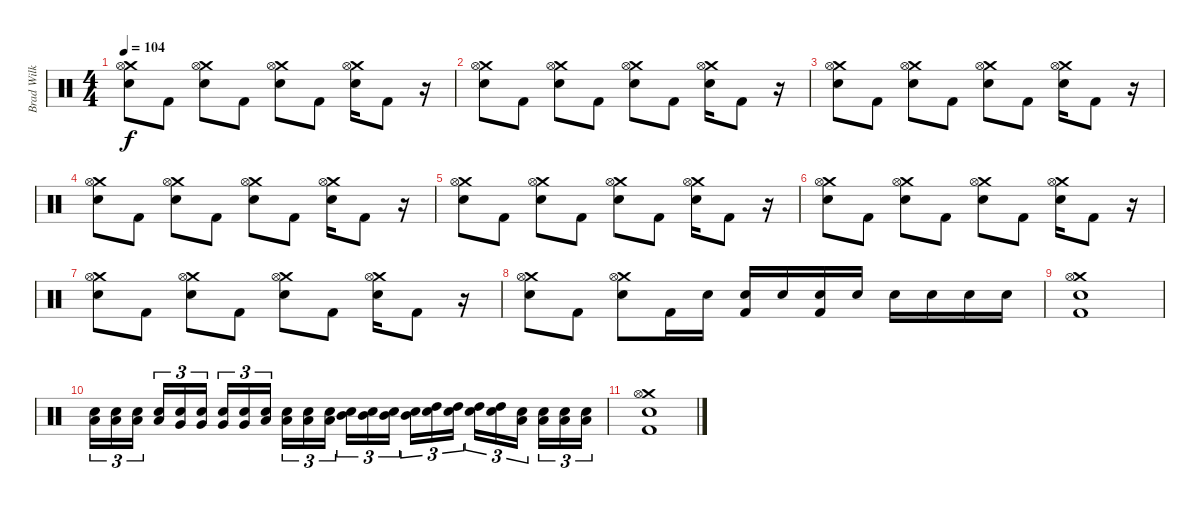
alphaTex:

\track ("Brad Wilk" "Brad Wilk") {instrument percussion}
\staff {score}
\articulation defaults
\ts (4 4)
\tempo 104
\clef neutral
\ks c
("Crash medium (hit)" "Hi-Hat (open)" "Electric Snare (hit)").8{dy f} "Kick (hit) 2".8 ("Crash medium (hit)" "Hi-Hat (open)" "Electric Snare (hit)").8 "Kick (hit) 2".8 ("Crash medium (hit)" "Hi-Hat (open)" "Electric Snare (hit)").8 "Kick (hit) 2".8 ("Crash medium (hit)" "Hi-Hat (open)" "Electric Snare (hit)").16 "Kick (hit) 2".8 r.16 |
("Crash medium (hit)" "Hi-Hat (open)" "Electric Snare (hit)").8 "Kick (hit) 2".8 ("Crash medium (hit)" "Hi-Hat (open)" "Electric Snare (hit)").8 "Kick (hit) 2".8 ("Crash medium (hit)" "Hi-Hat (open)" "Electric Snare (hit)").8 "Kick (hit) 2".8 ("Crash medium (hit)" "Hi-Hat (open)" "Electric Snare (hit)").16 "Kick (hit) 2".8 r.16 |
("Crash medium (hit)" "Hi-Hat (open)" "Electric Snare (hit)").8 "Kick (hit) 2".8 ("Crash medium (hit)" "Hi-Hat (open)" "Electric Snare (hit)").8 "Kick (hit) 2".8 ("Crash medium (hit)" "Hi-Hat (open)" "Electric Snare (hit)").8 "Kick (hit) 2".8 ("Crash medium (hit)" "Hi-Hat (open)" "Electric Snare (hit)").16 "Kick (hit) 2".8 r.16 |
("Crash medium (hit)" "Hi-Hat (open)" "Electric Snare (hit)").8 "Kick (hit) 2".8 ("Crash medium (hit)" "Hi-Hat (open)" "Electric Snare (hit)").8 "Kick (hit) 2".8 ("Crash medium (hit)" "Hi-Hat (open)" "Electric Snare (hit)").8 "Kick (hit) 2".8 ("Crash medium (hit)" "Hi-Hat (open)" "Electric Snare (hit)").16 "Kick (hit) 2".8 r.16 |
("Crash medium (hit)" "Hi-Hat (open)" "Electric Snare (hit)").8 "Kick (hit) 2".8 ("Crash medium (hit)" "Hi-Hat (open)" "Electric Snare (hit)").8 "Kick (hit) 2".8 ("Crash medium (hit)" "Hi-Hat (open)" "Electric Snare (hit)").8 "Kick (hit) 2".8 ("Crash medium (hit)" "Hi-Hat (open)" "Electric Snare (hit)").16 "Kick (hit) 2".8 r.16 |
("Crash medium (hit)" "Hi-Hat (open)" "Electric Snare (hit)").8 "Kick (hit) 2".8 ("Crash medium (hit)" "Hi-Hat (open)" "Electric Snare (hit)").8 "Kick (hit) 2".8 ("Crash medium (hit)" "Hi-Hat (open)" "Electric Snare (hit)").8 "Kick (hit) 2".8 ("Crash medium (hit)" "Hi-Hat (open)" "Electric Snare (hit)").16 "Kick (hit) 2".8 r.16 |
("Crash medium (hit)" "Hi-Hat (open)" "Electric Snare (hit)").8 "Kick (hit) 2".8 ("Crash medium (hit)" "Hi-Hat (open)" "Electric Snare (hit)").8 "Kick (hit) 2".8 ("Crash medium (hit)" "Hi-Hat (open)" "Electric Snare (hit)").8 "Kick (hit) 2".8 ("Crash medium (hit)" "Hi-Hat (open)" "Electric Snare (hit)").16 "Kick (hit) 2".8 r.16 |
("Crash medium (hit)" "Hi-Hat (open)" "Electric Snare (hit)").8 "Kick (hit) 2".8 ("Crash medium (hit)" "Hi-Hat (open)" "Electric Snare (hit)").8 "Kick (hit) 2".16 "Electric Snare (hit)".16 ("Electric Snare (hit)" "Kick (hit) 2").16 "Electric Snare (hit)".16 ("Electric Snare (hit)" "Kick (hit) 2").16 "Electric Snare (hit)".16 "Electric Snare (hit)".16 "Electric Snare (hit)".16 "Electric Snare (hit)".16 "Electric Snare (hit)".16 |
("Crash medium (hit)" "Hi-Hat (open)" "Electric Snare (hit)" "Kick (hit) 2").1 |
("Snare (hit) 2" "Low Floor Tom (hit)").16{tu (3 2)} ("Snare (hit) 2" "Low Floor Tom (hit)").16{tu (3 2)} ("Snare (hit) 2" "Low Floor Tom (hit)").16{tu (3 2)} ("Snare (hit) 2" "Low Floor Tom (hit)").16{tu (3 2)} ("Snare (hit) 2" "Very Low Tom (hit)").16{tu (3 2)} ("Snare (hit) 2" "Very Low Tom (hit)").16{tu (3 2)} ("Snare (hit) 2" "Very Low Tom (hit)").16{tu (3 2)} ("Snare (hit) 2" "Very Low Tom (hit)").16{tu (3 2)} ("Snare (hit) 2" "Low Tom (hit)").16{tu (3 2)} ("Snare (hit) 2" "Low Tom (hit)").16{tu (3 2)} ("Snare (hit) 2" "Low Tom (hit)").16{tu (3 2)} ("Snare (hit) 2" "Low Tom (hit)").16{tu (3 2)} ("Snare (hit) 2" "Mid Tom (hit)").16{tu (3 2)} ("Snare (hit) 2" "Mid Tom (hit)").16{tu (3 2)} ("Snare (hit) 2" "Mid Tom (hit)").16{tu (3 2)} ("Snare (hit) 2" "Mid Tom (hit)").16{tu (3 2)} ("Snare (hit) 2" "High Tom (hit)").16{tu (3 2)} ("Snare (hit) 2" "High Tom (hit)").16{tu (3 2)} ("Snare (hit) 2" "High Tom (hit)").16{tu (3 2)} ("Snare (hit) 2" "High Tom (hit)").16{tu (3 2)} ("Snare (hit) 2" "Low Floor Tom (hit)").16{tu (3 2)} ("Snare (hit) 2" "Low Floor Tom (hit)").16{tu (3 2)} ("Snare (hit) 2" "Low Floor Tom (hit)").16{tu (3 2)} ("Snare (hit) 2" "Low Floor Tom (hit)").16{tu (3 2)} |
("Crash medium (hit)" "Hi-Hat (open)" "Electric Snare (hit)" "Kick (hit) 2").1
